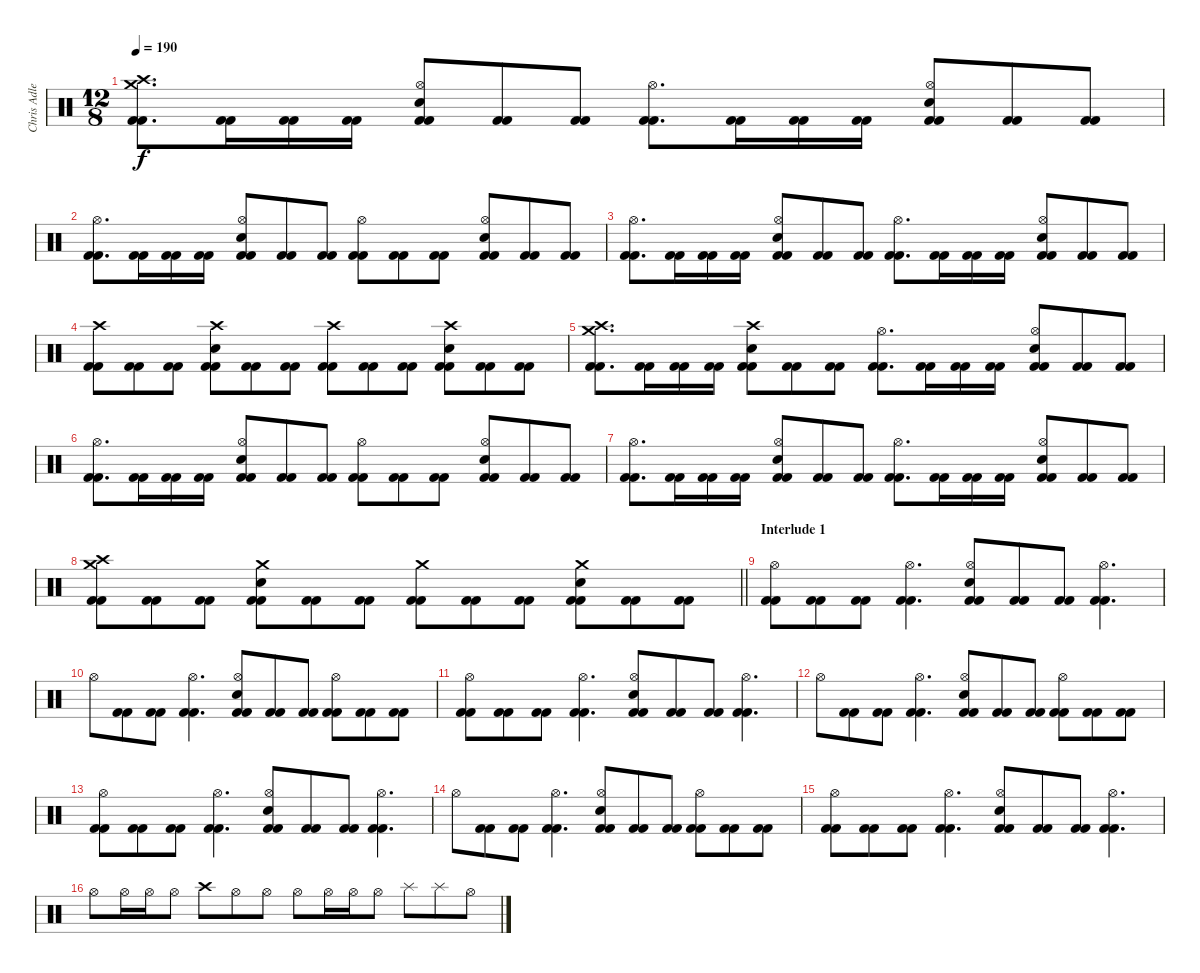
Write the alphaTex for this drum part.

\track ("Chris Adler" "Chris Adle") {instrument percussion}
\staff {score}
\articulation defaults
\ts (12 8)
\tempo 190
\clef neutral
\ks c
("Crash medium (hit)" "Crash high (hit)" "Kick (hit) 2" "Kick (hit) 2").8{d dy f} ("Kick (hit) 2" "Kick (hit) 2").16 ("Kick (hit) 2" "Kick (hit) 2").16 ("Kick (hit) 2" "Kick (hit) 2").16 ("Hi-Hat (open)" "Electric Snare (hit)" "Kick (hit) 2" "Kick (hit) 2").8 ("Kick (hit) 2" "Kick (hit) 2").8 ("Kick (hit) 2" "Kick (hit) 2").8 ("Hi-Hat (open)" "Kick (hit) 2" "Kick (hit) 2").8{d} ("Kick (hit) 2" "Kick (hit) 2").16 ("Kick (hit) 2" "Kick (hit) 2").16 ("Kick (hit) 2" "Kick (hit) 2").16 ("Hi-Hat (open)" "Electric Snare (hit)" "Kick (hit) 2" "Kick (hit) 2").8 ("Kick (hit) 2" "Kick (hit) 2").8 ("Kick (hit) 2" "Kick (hit) 2").8 |
("Hi-Hat (open)" "Kick (hit) 2" "Kick (hit) 2").8{d} ("Kick (hit) 2" "Kick (hit) 2").16 ("Kick (hit) 2" "Kick (hit) 2").16 ("Kick (hit) 2" "Kick (hit) 2").16 ("Hi-Hat (open)" "Electric Snare (hit)" "Kick (hit) 2" "Kick (hit) 2").8 ("Kick (hit) 2" "Kick (hit) 2").8 ("Kick (hit) 2" "Kick (hit) 2").8 ("Hi-Hat (open)" "Kick (hit) 2" "Kick (hit) 2").8 ("Kick (hit) 2" "Kick (hit) 2").8 ("Kick (hit) 2" "Kick (hit) 2").8 ("Hi-Hat (open)" "Electric Snare (hit)" "Kick (hit) 2" "Kick (hit) 2").8 ("Kick (hit) 2" "Kick (hit) 2").8 ("Kick (hit) 2" "Kick (hit) 2").8 |
("Hi-Hat (open)" "Kick (hit) 2" "Kick (hit) 2").8{d} ("Kick (hit) 2" "Kick (hit) 2").16 ("Kick (hit) 2" "Kick (hit) 2").16 ("Kick (hit) 2" "Kick (hit) 2").16 ("Hi-Hat (open)" "Electric Snare (hit)" "Kick (hit) 2" "Kick (hit) 2").8 ("Kick (hit) 2" "Kick (hit) 2").8 ("Kick (hit) 2" "Kick (hit) 2").8 ("Hi-Hat (open)" "Kick (hit) 2" "Kick (hit) 2").8{d} ("Kick (hit) 2" "Kick (hit) 2").16 ("Kick (hit) 2" "Kick (hit) 2").16 ("Kick (hit) 2" "Kick (hit) 2").16 ("Hi-Hat (open)" "Electric Snare (hit)" "Kick (hit) 2" "Kick (hit) 2").8 ("Kick (hit) 2" "Kick (hit) 2").8 ("Kick (hit) 2" "Kick (hit) 2").8 |
("Crash high (hit)" "Kick (hit) 2" "Kick (hit) 2").8 ("Kick (hit) 2" "Kick (hit) 2").8 ("Kick (hit) 2" "Kick (hit) 2").8 ("Crash high (hit)" "Electric Snare (hit)" "Kick (hit) 2" "Kick (hit) 2").8 ("Kick (hit) 2" "Kick (hit) 2").8 ("Kick (hit) 2" "Kick (hit) 2").8 ("Crash high (hit)" "Kick (hit) 2" "Kick (hit) 2").8 ("Kick (hit) 2" "Kick (hit) 2").8 ("Kick (hit) 2" "Kick (hit) 2").8 ("Crash high (hit)" "Electric Snare (hit)" "Kick (hit) 2" "Kick (hit) 2").8 ("Kick (hit) 2" "Kick (hit) 2").8 ("Kick (hit) 2" "Kick (hit) 2").8 |
("Crash medium (hit)" "Crash high (hit)" "Kick (hit) 2" "Kick (hit) 2").8{d} ("Kick (hit) 2" "Kick (hit) 2").16 ("Kick (hit) 2" "Kick (hit) 2").16 ("Kick (hit) 2" "Kick (hit) 2").16 ("Crash high (hit)" "Electric Snare (hit)" "Kick (hit) 2" "Kick (hit) 2").8 ("Kick (hit) 2" "Kick (hit) 2").8 ("Kick (hit) 2" "Kick (hit) 2").8 ("Hi-Hat (open)" "Kick (hit) 2" "Kick (hit) 2").8{d} ("Kick (hit) 2" "Kick (hit) 2").16 ("Kick (hit) 2" "Kick (hit) 2").16 ("Kick (hit) 2" "Kick (hit) 2").16 ("Hi-Hat (open)" "Electric Snare (hit)" "Kick (hit) 2" "Kick (hit) 2").8 ("Kick (hit) 2" "Kick (hit) 2").8 ("Kick (hit) 2" "Kick (hit) 2").8 |
("Hi-Hat (open)" "Kick (hit) 2" "Kick (hit) 2").8{d} ("Kick (hit) 2" "Kick (hit) 2").16 ("Kick (hit) 2" "Kick (hit) 2").16 ("Kick (hit) 2" "Kick (hit) 2").16 ("Hi-Hat (open)" "Electric Snare (hit)" "Kick (hit) 2" "Kick (hit) 2").8 ("Kick (hit) 2" "Kick (hit) 2").8 ("Kick (hit) 2" "Kick (hit) 2").8 ("Hi-Hat (open)" "Kick (hit) 2" "Kick (hit) 2").8 ("Kick (hit) 2" "Kick (hit) 2").8 ("Kick (hit) 2" "Kick (hit) 2").8 ("Hi-Hat (open)" "Electric Snare (hit)" "Kick (hit) 2" "Kick (hit) 2").8 ("Kick (hit) 2" "Kick (hit) 2").8 ("Kick (hit) 2" "Kick (hit) 2").8 |
("Hi-Hat (open)" "Kick (hit) 2" "Kick (hit) 2").8{d} ("Kick (hit) 2" "Kick (hit) 2").16 ("Kick (hit) 2" "Kick (hit) 2").16 ("Kick (hit) 2" "Kick (hit) 2").16 ("Hi-Hat (open)" "Electric Snare (hit)" "Kick (hit) 2" "Kick (hit) 2").8 ("Kick (hit) 2" "Kick (hit) 2").8 ("Kick (hit) 2" "Kick (hit) 2").8 ("Hi-Hat (open)" "Kick (hit) 2" "Kick (hit) 2").8{d} ("Kick (hit) 2" "Kick (hit) 2").16 ("Kick (hit) 2" "Kick (hit) 2").16 ("Kick (hit) 2" "Kick (hit) 2").16 ("Hi-Hat (open)" "Electric Snare (hit)" "Kick (hit) 2" "Kick (hit) 2").8 ("Kick (hit) 2" "Kick (hit) 2").8 ("Kick (hit) 2" "Kick (hit) 2").8 |
\barLineRight lightlight
("Crash medium (hit)" "Crash high (hit)" "Kick (hit) 2" "Kick (hit) 2").8 ("Kick (hit) 2" "Kick (hit) 2").8 ("Kick (hit) 2" "Kick (hit) 2").8 ("Crash medium (hit)" "Electric Snare (hit)" "Kick (hit) 2" "Kick (hit) 2").8 ("Kick (hit) 2" "Kick (hit) 2").8 ("Kick (hit) 2" "Kick (hit) 2").8 ("Crash medium (hit)" "Kick (hit) 2" "Kick (hit) 2").8 ("Kick (hit) 2" "Kick (hit) 2").8 ("Kick (hit) 2" "Kick (hit) 2").8 ("Crash medium (hit)" "Electric Snare (hit)" "Kick (hit) 2" "Kick (hit) 2").8 ("Kick (hit) 2" "Kick (hit) 2").8 ("Kick (hit) 2" "Kick (hit) 2").8 |
\section ("" "Interlude 1")
("Hi-Hat (open)" "Kick (hit) 2" "Kick (hit) 2").8 ("Kick (hit) 2" "Kick (hit) 2").8 ("Kick (hit) 2" "Kick (hit) 2").8 ("Hi-Hat (open)" "Kick (hit) 2" "Kick (hit) 2").4{d} ("Hi-Hat (open)" "Electric Snare (hit)" "Kick (hit) 2" "Kick (hit) 2").8 ("Kick (hit) 2" "Kick (hit) 2").8 ("Kick (hit) 2" "Kick (hit) 2").8 ("Hi-Hat (open)" "Kick (hit) 2" "Kick (hit) 2").4{d} |
"Hi-Hat (open)".8 ("Kick (hit) 2" "Kick (hit) 2").8 ("Kick (hit) 2" "Kick (hit) 2").8 ("Hi-Hat (open)" "Kick (hit) 2" "Kick (hit) 2").4{d} ("Hi-Hat (open)" "Electric Snare (hit)" "Kick (hit) 2" "Kick (hit) 2").8 ("Kick (hit) 2" "Kick (hit) 2").8 ("Kick (hit) 2" "Kick (hit) 2").8 ("Hi-Hat (open)" "Kick (hit) 2" "Kick (hit) 2").8 ("Kick (hit) 2" "Kick (hit) 2").8 ("Kick (hit) 2" "Kick (hit) 2").8 |
("Hi-Hat (open)" "Kick (hit) 2" "Kick (hit) 2").8 ("Kick (hit) 2" "Kick (hit) 2").8 ("Kick (hit) 2" "Kick (hit) 2").8 ("Hi-Hat (open)" "Kick (hit) 2" "Kick (hit) 2").4{d} ("Hi-Hat (open)" "Electric Snare (hit)" "Kick (hit) 2" "Kick (hit) 2").8 ("Kick (hit) 2" "Kick (hit) 2").8 ("Kick (hit) 2" "Kick (hit) 2").8 ("Hi-Hat (open)" "Kick (hit) 2" "Kick (hit) 2").4{d} |
"Hi-Hat (open)".8 ("Kick (hit) 2" "Kick (hit) 2").8 ("Kick (hit) 2" "Kick (hit) 2").8 ("Hi-Hat (open)" "Kick (hit) 2" "Kick (hit) 2").4{d} ("Hi-Hat (open)" "Electric Snare (hit)" "Kick (hit) 2" "Kick (hit) 2").8 ("Kick (hit) 2" "Kick (hit) 2").8 ("Kick (hit) 2" "Kick (hit) 2").8 ("Hi-Hat (open)" "Kick (hit) 2" "Kick (hit) 2").8 ("Kick (hit) 2" "Kick (hit) 2").8 ("Kick (hit) 2" "Kick (hit) 2").8 |
("Hi-Hat (open)" "Kick (hit) 2" "Kick (hit) 2").8 ("Kick (hit) 2" "Kick (hit) 2").8 ("Kick (hit) 2" "Kick (hit) 2").8 ("Hi-Hat (open)" "Kick (hit) 2" "Kick (hit) 2").4{d} ("Hi-Hat (open)" "Electric Snare (hit)" "Kick (hit) 2" "Kick (hit) 2").8 ("Kick (hit) 2" "Kick (hit) 2").8 ("Kick (hit) 2" "Kick (hit) 2").8 ("Hi-Hat (open)" "Kick (hit) 2" "Kick (hit) 2").4{d} |
"Hi-Hat (open)".8 ("Kick (hit) 2" "Kick (hit) 2").8 ("Kick (hit) 2" "Kick (hit) 2").8 ("Hi-Hat (open)" "Kick (hit) 2" "Kick (hit) 2").4{d} ("Hi-Hat (open)" "Electric Snare (hit)" "Kick (hit) 2" "Kick (hit) 2").8 ("Kick (hit) 2" "Kick (hit) 2").8 ("Kick (hit) 2" "Kick (hit) 2").8 ("Hi-Hat (open)" "Kick (hit) 2" "Kick (hit) 2").8 ("Kick (hit) 2" "Kick (hit) 2").8 ("Kick (hit) 2" "Kick (hit) 2").8 |
("Hi-Hat (open)" "Kick (hit) 2" "Kick (hit) 2").8 ("Kick (hit) 2" "Kick (hit) 2").8 ("Kick (hit) 2" "Kick (hit) 2").8 ("Hi-Hat (open)" "Kick (hit) 2" "Kick (hit) 2").4{d} ("Hi-Hat (open)" "Electric Snare (hit)" "Kick (hit) 2" "Kick (hit) 2").8 ("Kick (hit) 2" "Kick (hit) 2").8 ("Kick (hit) 2" "Kick (hit) 2").8 ("Hi-Hat (open)" "Kick (hit) 2" "Kick (hit) 2").4{d} |
"Hi-Hat (open)".8 "Hi-Hat (open)".16 "Hi-Hat (open)".16 "Hi-Hat (open)".8 "Crash high (hit)".8 "Hi-Hat (open)".8 "Hi-Hat (open)".8 "Hi-Hat (open)".8 "Hi-Hat (open)".16 "Hi-Hat (open)".16 "Hi-Hat (open)".8 "Splash (hit)".8 "Splash (hit)".8 "Hi-Hat (open)".8
